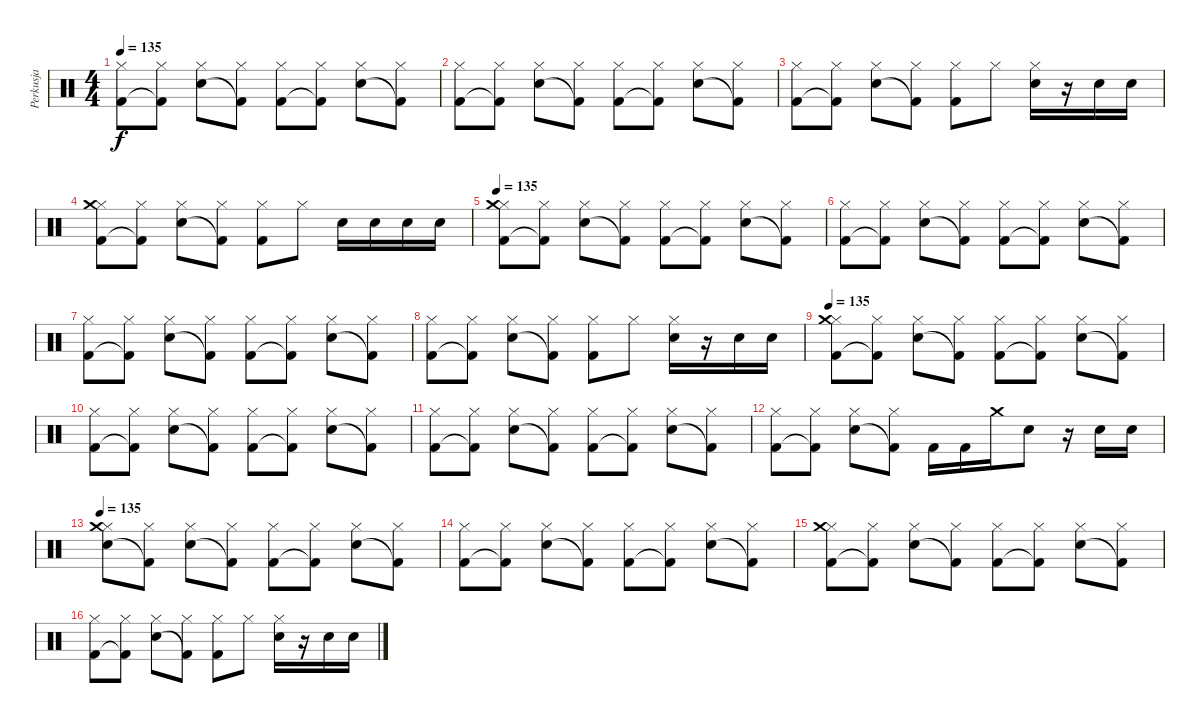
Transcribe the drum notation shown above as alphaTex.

\track ("Perkusja" "Perkusja") {instrument percussion}
\staff {score}
\articulation defaults
\ts (4 4)
\tempo 135
\clef neutral
\ks c
("Kick (hit) 2" "Hi-Hat (closed)").8{dy f} ("Kick (hit) 2"{t} "Hi-Hat (closed)").8 ("Snare (hit) 2" "Hi-Hat (closed)").8 ("Kick (hit) 2"{t} "Hi-Hat (closed)").8 ("Kick (hit) 2" "Hi-Hat (closed)").8 ("Kick (hit) 2"{t} "Hi-Hat (closed)").8 ("Snare (hit) 2" "Hi-Hat (closed)").8 ("Kick (hit) 2"{t} "Hi-Hat (closed)").8 |
("Kick (hit) 2" "Hi-Hat (closed)").8 ("Kick (hit) 2"{t} "Hi-Hat (closed)").8 ("Snare (hit) 2" "Hi-Hat (closed)").8 ("Kick (hit) 2"{t} "Hi-Hat (closed)").8 ("Kick (hit) 2" "Hi-Hat (closed)").8 ("Kick (hit) 2"{t} "Hi-Hat (closed)").8 ("Snare (hit) 2" "Hi-Hat (closed)").8 ("Kick (hit) 2"{t} "Hi-Hat (closed)").8 |
("Kick (hit) 2" "Hi-Hat (closed)").8 ("Kick (hit) 2"{t} "Hi-Hat (closed)").8 ("Snare (hit) 2" "Hi-Hat (closed)").8 ("Kick (hit) 2"{t} "Hi-Hat (closed)").8 ("Kick (hit) 2" "Hi-Hat (closed)").8 "Hi-Hat (closed)".8 ("Snare (hit) 2" "Hi-Hat (closed)").16 r.16 "Snare (hit) 2".16 "Snare (hit) 2".16 |
("Kick (hit) 2" "Hi-Hat (closed)" "Crash medium (hit)").8 ("Kick (hit) 2"{t} "Hi-Hat (closed)").8 ("Snare (hit) 2" "Hi-Hat (closed)").8 ("Kick (hit) 2"{t} "Hi-Hat (closed)").8 ("Kick (hit) 2" "Hi-Hat (closed)").8 "Hi-Hat (closed)".8 "Snare (hit) 2".16 "Snare (hit) 2".16 "Snare (hit) 2".16 "Snare (hit) 2".16 |
\tempo 135
("Kick (hit) 2" "Hi-Hat (closed)" "Crash medium (hit)").8 ("Kick (hit) 2"{t} "Hi-Hat (closed)").8 ("Snare (hit) 2" "Hi-Hat (closed)").8 ("Kick (hit) 2"{t} "Hi-Hat (closed)").8 ("Kick (hit) 2" "Hi-Hat (closed)").8 ("Kick (hit) 2"{t} "Hi-Hat (closed)").8 ("Snare (hit) 2" "Hi-Hat (closed)").8 ("Kick (hit) 2"{t} "Hi-Hat (closed)").8 |
("Kick (hit) 2" "Hi-Hat (closed)").8 ("Kick (hit) 2"{t} "Hi-Hat (closed)").8 ("Snare (hit) 2" "Hi-Hat (closed)").8 ("Kick (hit) 2"{t} "Hi-Hat (closed)").8 ("Kick (hit) 2" "Hi-Hat (closed)").8 ("Kick (hit) 2"{t} "Hi-Hat (closed)").8 ("Snare (hit) 2" "Hi-Hat (closed)").8 ("Kick (hit) 2"{t} "Hi-Hat (closed)").8 |
("Kick (hit) 2" "Hi-Hat (closed)").8 ("Kick (hit) 2"{t} "Hi-Hat (closed)").8 ("Snare (hit) 2" "Hi-Hat (closed)").8 ("Kick (hit) 2"{t} "Hi-Hat (closed)").8 ("Kick (hit) 2" "Hi-Hat (closed)").8 ("Kick (hit) 2"{t} "Hi-Hat (closed)").8 ("Snare (hit) 2" "Hi-Hat (closed)").8 ("Kick (hit) 2"{t} "Hi-Hat (closed)").8 |
("Kick (hit) 2" "Hi-Hat (closed)").8 ("Kick (hit) 2"{t} "Hi-Hat (closed)").8 ("Snare (hit) 2" "Hi-Hat (closed)").8 ("Kick (hit) 2"{t} "Hi-Hat (closed)").8 ("Kick (hit) 2" "Hi-Hat (closed)").8 "Hi-Hat (closed)".8 ("Snare (hit) 2" "Hi-Hat (closed)").16 r.16 "Snare (hit) 2".16 "Snare (hit) 2".16 |
\tempo 135
("Kick (hit) 2" "Hi-Hat (closed)" "Crash medium (hit)").8 ("Kick (hit) 2"{t} "Hi-Hat (closed)").8 ("Snare (hit) 2" "Hi-Hat (closed)").8 ("Kick (hit) 2"{t} "Hi-Hat (closed)").8 ("Kick (hit) 2" "Hi-Hat (closed)").8 ("Kick (hit) 2"{t} "Hi-Hat (closed)").8 ("Snare (hit) 2" "Hi-Hat (closed)").8 ("Kick (hit) 2"{t} "Hi-Hat (closed)").8 |
("Kick (hit) 2" "Hi-Hat (closed)").8 ("Kick (hit) 2"{t} "Hi-Hat (closed)").8 ("Snare (hit) 2" "Hi-Hat (closed)").8 ("Kick (hit) 2"{t} "Hi-Hat (closed)").8 ("Kick (hit) 2" "Hi-Hat (closed)").8 ("Kick (hit) 2"{t} "Hi-Hat (closed)").8 ("Snare (hit) 2" "Hi-Hat (closed)").8 ("Kick (hit) 2"{t} "Hi-Hat (closed)").8 |
("Kick (hit) 2" "Hi-Hat (closed)").8 ("Kick (hit) 2"{t} "Hi-Hat (closed)").8 ("Snare (hit) 2" "Hi-Hat (closed)").8 ("Kick (hit) 2"{t} "Hi-Hat (closed)").8 ("Kick (hit) 2" "Hi-Hat (closed)").8 ("Kick (hit) 2"{t} "Hi-Hat (closed)").8 ("Snare (hit) 2" "Hi-Hat (closed)").8 ("Kick (hit) 2"{t} "Hi-Hat (closed)").8 |
("Kick (hit) 2" "Hi-Hat (closed)").8 ("Kick (hit) 2"{t} "Hi-Hat (closed)").8 ("Snare (hit) 2" "Hi-Hat (closed)").8 ("Kick (hit) 2"{t} "Hi-Hat (closed)").8 "Kick (hit) 2".16 "Kick (hit) 2".16 "Crash medium (hit)".16 "Snare (hit) 2".8 r.16 "Snare (hit) 2".16 "Snare (hit) 2".16 |
\tempo 135
("Snare (hit) 2" "Hi-Hat (closed)" "Crash medium (hit)").8 ("Kick (hit) 2"{t} "Hi-Hat (closed)").8 ("Snare (hit) 2" "Hi-Hat (closed)").8 ("Kick (hit) 2"{t} "Hi-Hat (closed)").8 ("Kick (hit) 2" "Hi-Hat (closed)").8 ("Kick (hit) 2"{t} "Hi-Hat (closed)").8 ("Snare (hit) 2" "Hi-Hat (closed)").8 ("Kick (hit) 2"{t} "Hi-Hat (closed)").8 |
("Kick (hit) 2" "Hi-Hat (closed)").8 ("Kick (hit) 2"{t} "Hi-Hat (closed)").8 ("Snare (hit) 2" "Hi-Hat (closed)").8 ("Kick (hit) 2"{t} "Hi-Hat (closed)").8 ("Kick (hit) 2" "Hi-Hat (closed)").8 ("Kick (hit) 2"{t} "Hi-Hat (closed)").8 ("Snare (hit) 2" "Hi-Hat (closed)").8 ("Kick (hit) 2"{t} "Hi-Hat (closed)").8 |
("Kick (hit) 2" "Hi-Hat (closed)" "Crash medium (hit)").8 ("Kick (hit) 2"{t} "Hi-Hat (closed)").8 ("Snare (hit) 2" "Hi-Hat (closed)").8 ("Kick (hit) 2"{t} "Hi-Hat (closed)").8 ("Kick (hit) 2" "Hi-Hat (closed)").8 ("Kick (hit) 2"{t} "Hi-Hat (closed)").8 ("Snare (hit) 2" "Hi-Hat (closed)").8 ("Kick (hit) 2"{t} "Hi-Hat (closed)").8 |
("Kick (hit) 2" "Hi-Hat (closed)").8 ("Kick (hit) 2"{t} "Hi-Hat (closed)").8 ("Snare (hit) 2" "Hi-Hat (closed)").8 ("Kick (hit) 2"{t} "Hi-Hat (closed)").8 ("Kick (hit) 2" "Hi-Hat (closed)").8 "Hi-Hat (closed)".8 ("Snare (hit) 2" "Hi-Hat (closed)").16 r.16 "Snare (hit) 2".16 "Snare (hit) 2".16
